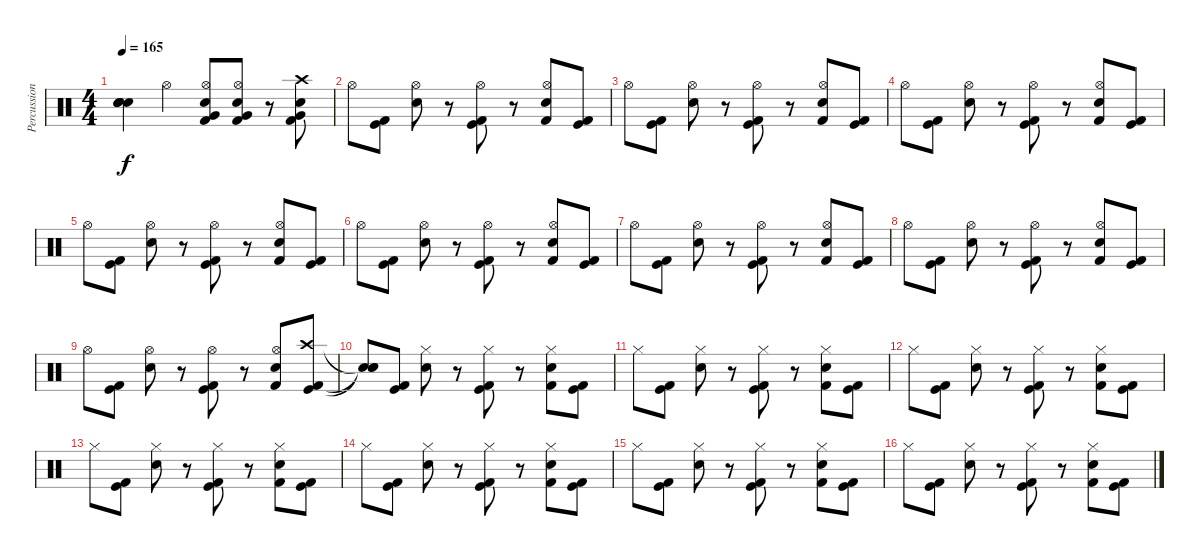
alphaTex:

\track ("Percussions" "Percussion") {instrument percussion}
\staff {score}
\articulation defaults
\ts (4 4)
\tempo 165
\clef neutral
\ks c
("Snare (hit)"{t} "Snare (hit)"{t} "Snare (hit)"{t} "Snare (hit)"{t}).4{dy f} "Hi-Hat (open)".4 ("Hi-Hat (open)" "Snare (hit) 2" "Very Low Tom (hit)" "Kick (hit) 2").8 ("Hi-Hat (open)" "Snare (hit) 2" "Very Low Tom (hit)" "Kick (hit) 2").8 r.8 ("Crash high (hit)" "Snare (hit) 2" "Very Low Tom (hit)" "Kick (hit) 2").8 |
"Hi-Hat (open)".8 ("Kick (hit) 2" "Kick (hit)").8 ("Snare (hit) 2" "Hi-Hat (open)").8 r.8 ("Kick (hit) 2" "Kick (hit)" "Hi-Hat (open)").8 r.8 ("Kick (hit) 2" "Snare (hit) 2" "Hi-Hat (open)").8 ("Kick (hit) 2" "Kick (hit)").8 |
"Hi-Hat (open)".8 ("Kick (hit) 2" "Kick (hit)").8 ("Snare (hit) 2" "Hi-Hat (open)").8 r.8 ("Kick (hit) 2" "Kick (hit)" "Hi-Hat (open)").8 r.8 ("Kick (hit) 2" "Snare (hit) 2" "Hi-Hat (open)").8 ("Kick (hit) 2" "Kick (hit)").8 |
"Hi-Hat (open)".8 ("Kick (hit) 2" "Kick (hit)").8 ("Snare (hit) 2" "Hi-Hat (open)").8 r.8 ("Kick (hit) 2" "Kick (hit)" "Hi-Hat (open)").8 r.8 ("Kick (hit) 2" "Snare (hit) 2" "Hi-Hat (open)").8 ("Kick (hit) 2" "Kick (hit)").8 |
"Hi-Hat (open)".8 ("Kick (hit) 2" "Kick (hit)").8 ("Snare (hit) 2" "Hi-Hat (open)").8 r.8 ("Kick (hit) 2" "Kick (hit)" "Hi-Hat (open)").8 r.8 ("Kick (hit) 2" "Snare (hit) 2" "Hi-Hat (open)").8 ("Kick (hit) 2" "Kick (hit)").8 |
"Hi-Hat (open)".8 ("Kick (hit) 2" "Kick (hit)").8 ("Snare (hit) 2" "Hi-Hat (open)").8 r.8 ("Kick (hit) 2" "Kick (hit)" "Hi-Hat (open)").8 r.8 ("Kick (hit) 2" "Snare (hit) 2" "Hi-Hat (open)").8 ("Kick (hit) 2" "Kick (hit)").8 |
"Hi-Hat (open)".8 ("Kick (hit) 2" "Kick (hit)").8 ("Snare (hit) 2" "Hi-Hat (open)").8 r.8 ("Kick (hit) 2" "Kick (hit)" "Hi-Hat (open)").8 r.8 ("Kick (hit) 2" "Snare (hit) 2" "Hi-Hat (open)").8 ("Kick (hit) 2" "Kick (hit)").8 |
"Hi-Hat (open)".8 ("Kick (hit) 2" "Kick (hit)").8 ("Snare (hit) 2" "Hi-Hat (open)").8 r.8 ("Kick (hit) 2" "Kick (hit)" "Hi-Hat (open)").8 r.8 ("Kick (hit) 2" "Snare (hit) 2" "Hi-Hat (open)").8 ("Kick (hit) 2" "Kick (hit)").8 |
"Hi-Hat (open)".8 ("Kick (hit) 2" "Kick (hit)").8 ("Snare (hit) 2" "Hi-Hat (open)").8 r.8 ("Kick (hit) 2" "Kick (hit)" "Hi-Hat (open)").8 r.8 ("Kick (hit) 2" "Snare (hit) 2" "Hi-Hat (open)").8 ("Kick (hit) 2" "Kick (hit)" "Crash high (hit)").8 |
("Snare (hit)"{t} "Snare (hit)"{t} "Snare (hit)"{t}).8 ("Kick (hit) 2" "Kick (hit)").8 ("Snare (hit) 2" "Hi-Hat (closed)").8 r.8 ("Kick (hit) 2" "Kick (hit)" "Hi-Hat (closed)").8 r.8 ("Kick (hit) 2" "Snare (hit) 2" "Hi-Hat (closed)").8 ("Kick (hit) 2" "Kick (hit)").8 |
"Hi-Hat (closed)".8 ("Kick (hit) 2" "Kick (hit)").8 ("Snare (hit) 2" "Hi-Hat (closed)").8 r.8 ("Kick (hit) 2" "Kick (hit)" "Hi-Hat (closed)").8 r.8 ("Kick (hit) 2" "Snare (hit) 2" "Hi-Hat (closed)").8 ("Kick (hit) 2" "Kick (hit)").8 |
"Hi-Hat (closed)".8 ("Kick (hit) 2" "Kick (hit)").8 ("Snare (hit) 2" "Hi-Hat (closed)").8 r.8 ("Kick (hit) 2" "Kick (hit)" "Hi-Hat (closed)").8 r.8 ("Kick (hit) 2" "Snare (hit) 2" "Hi-Hat (closed)").8 ("Kick (hit) 2" "Kick (hit)").8 |
"Hi-Hat (closed)".8 ("Kick (hit) 2" "Kick (hit)").8 ("Snare (hit) 2" "Hi-Hat (closed)").8 r.8 ("Kick (hit) 2" "Kick (hit)" "Hi-Hat (closed)").8 r.8 ("Kick (hit) 2" "Snare (hit) 2" "Hi-Hat (closed)").8 ("Kick (hit) 2" "Kick (hit)").8 |
"Hi-Hat (closed)".8 ("Kick (hit) 2" "Kick (hit)").8 ("Snare (hit) 2" "Hi-Hat (closed)").8 r.8 ("Kick (hit) 2" "Kick (hit)" "Hi-Hat (closed)").8 r.8 ("Kick (hit) 2" "Snare (hit) 2" "Hi-Hat (closed)").8 ("Kick (hit) 2" "Kick (hit)").8 |
"Hi-Hat (closed)".8 ("Kick (hit) 2" "Kick (hit)").8 ("Snare (hit) 2" "Hi-Hat (closed)").8 r.8 ("Kick (hit) 2" "Kick (hit)" "Hi-Hat (closed)").8 r.8 ("Kick (hit) 2" "Snare (hit) 2" "Hi-Hat (closed)").8 ("Kick (hit) 2" "Kick (hit)").8 |
"Hi-Hat (closed)".8 ("Kick (hit) 2" "Kick (hit)").8 ("Snare (hit) 2" "Hi-Hat (closed)").8 r.8 ("Kick (hit) 2" "Kick (hit)" "Hi-Hat (closed)").8 r.8 ("Kick (hit) 2" "Snare (hit) 2" "Hi-Hat (closed)").8 ("Kick (hit) 2" "Kick (hit)").8
